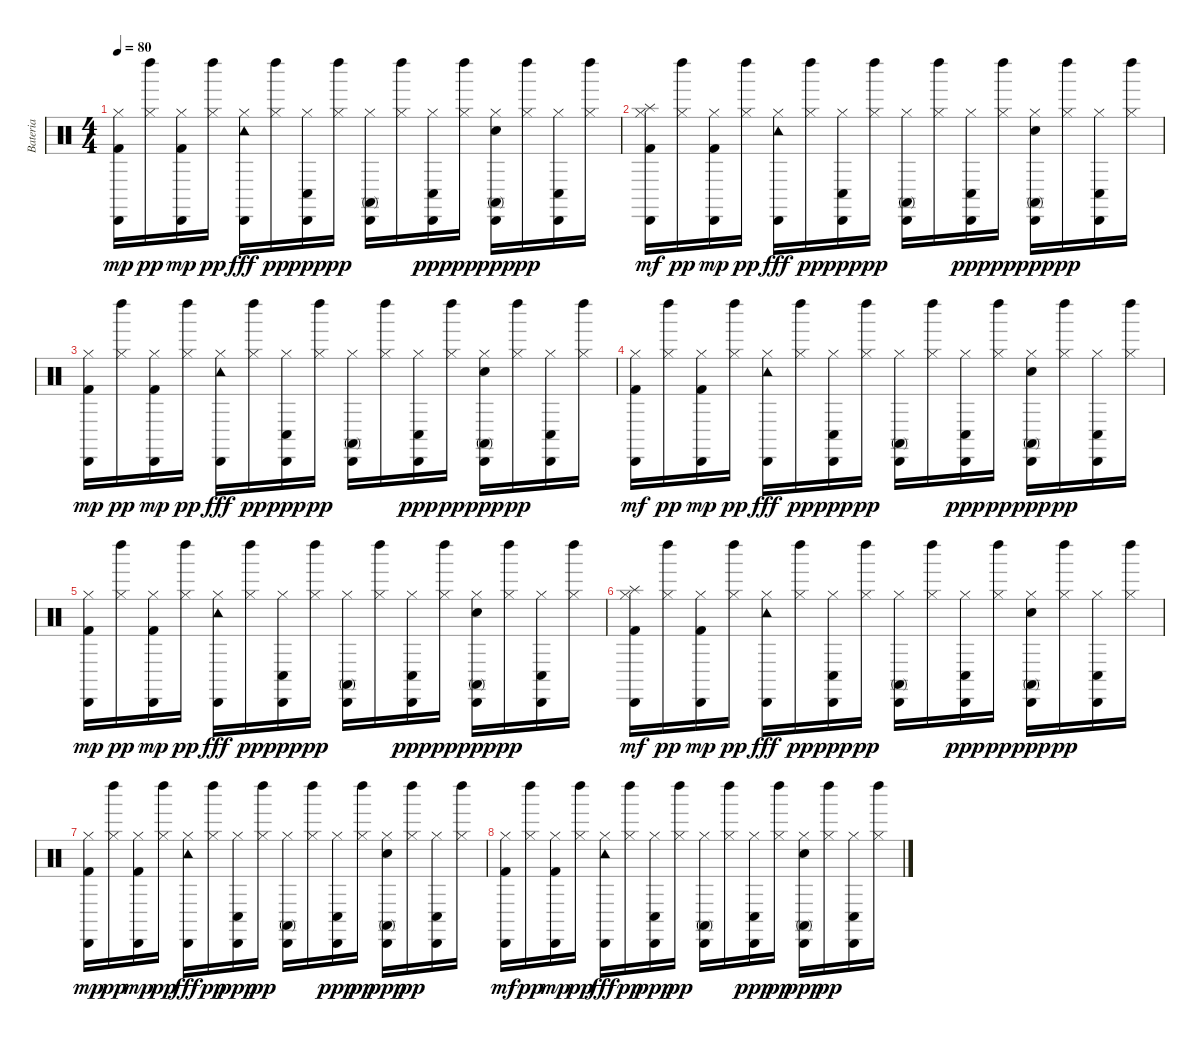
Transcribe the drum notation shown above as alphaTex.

\track ("Bateria" "Bateria") {instrument percussion}
\staff {score}
\articulation defaults
\ts (4 4)
\tempo 80
\clef neutral
\ks c
("Hi-Hat (closed)" "Cabasa (hit)" "Kick (hit) 2").16{dy mp} ("Hi-Hat (closed)" "Left Maraca (hit)").16{dy pp} ("Hi-Hat (closed)" "Cabasa (hit)" "Kick (hit) 2").16{dy mp} ("Hi-Hat (closed)" "Left Maraca (hit)").16{dy pp} ("Hi-Hat (closed)" "Cabasa (hit)" "Tambourine (hit)").16{dy fff} ("Hi-Hat (closed)" "Left Maraca (hit)").16{dy pp} ("Hi-Hat (closed)" "Conga low (hit)" "Cabasa (hit)").16{dy ppp} ("Hi-Hat (closed)" "Left Maraca (hit)").16{dy pp} ("Hi-Hat (closed)" "Conga high (mute)" "Cabasa (hit)").16 ("Hi-Hat (closed)" "Left Maraca (hit)").16 ("Hi-Hat (closed)" "Conga low (hit)" "Cabasa (hit)").16{dy ppp} ("Hi-Hat (closed)" "Left Maraca (hit)").16{dy pp} ("Electric Snare (hit)" "Hi-Hat (closed)" "Conga high (mute)" "Cabasa (hit)").16{dy ppp} ("Hi-Hat (closed)" "Left Maraca (hit)").16{dy pp} ("Hi-Hat (closed)" "Conga low (hit)" "Cabasa (hit)").16 ("Hi-Hat (closed)" "Left Maraca (hit)").16 |
("Hi-Hat (closed)" "Splash (hit)" "Cabasa (hit)" "Kick (hit) 2").16{dy mf} ("Hi-Hat (closed)" "Left Maraca (hit)").16{dy pp} ("Hi-Hat (closed)" "Cabasa (hit)" "Kick (hit) 2").16{dy mp} ("Hi-Hat (closed)" "Left Maraca (hit)").16{dy pp} ("Hi-Hat (closed)" "Cabasa (hit)" "Tambourine (hit)").16{dy fff} ("Hi-Hat (closed)" "Left Maraca (hit)").16{dy pp} ("Hi-Hat (closed)" "Conga low (hit)" "Cabasa (hit)").16{dy ppp} ("Hi-Hat (closed)" "Left Maraca (hit)").16{dy pp} ("Hi-Hat (closed)" "Conga high (mute)" "Cabasa (hit)").16 ("Hi-Hat (closed)" "Left Maraca (hit)").16 ("Hi-Hat (closed)" "Conga low (hit)" "Cabasa (hit)").16{dy ppp} ("Hi-Hat (closed)" "Left Maraca (hit)").16{dy pp} ("Electric Snare (hit)" "Hi-Hat (closed)" "Conga high (mute)" "Cabasa (hit)").16{dy ppp} ("Hi-Hat (closed)" "Left Maraca (hit)").16{dy pp} ("Hi-Hat (closed)" "Conga low (hit)" "Cabasa (hit)").16 ("Hi-Hat (closed)" "Left Maraca (hit)").16 |
("Hi-Hat (closed)" "Cabasa (hit)" "Kick (hit) 2").16{dy mp} ("Hi-Hat (closed)" "Left Maraca (hit)").16{dy pp} ("Hi-Hat (closed)" "Cabasa (hit)" "Kick (hit) 2").16{dy mp} ("Hi-Hat (closed)" "Left Maraca (hit)").16{dy pp} ("Hi-Hat (closed)" "Cabasa (hit)" "Tambourine (hit)").16{dy fff} ("Hi-Hat (closed)" "Left Maraca (hit)").16{dy pp} ("Hi-Hat (closed)" "Conga low (hit)" "Cabasa (hit)").16{dy ppp} ("Hi-Hat (closed)" "Left Maraca (hit)").16{dy pp} ("Hi-Hat (closed)" "Conga high (mute)" "Cabasa (hit)").16 ("Hi-Hat (closed)" "Left Maraca (hit)").16 ("Hi-Hat (closed)" "Conga low (hit)" "Cabasa (hit)").16{dy ppp} ("Hi-Hat (closed)" "Left Maraca (hit)").16{dy pp} ("Electric Snare (hit)" "Hi-Hat (closed)" "Conga high (mute)" "Cabasa (hit)").16{dy ppp} ("Hi-Hat (closed)" "Left Maraca (hit)").16{dy pp} ("Hi-Hat (closed)" "Conga low (hit)" "Cabasa (hit)").16 ("Hi-Hat (closed)" "Left Maraca (hit)").16 |
("Hi-Hat (closed)" "Cabasa (hit)" "Kick (hit) 2").16{dy mf} ("Hi-Hat (closed)" "Left Maraca (hit)").16{dy pp} ("Hi-Hat (closed)" "Cabasa (hit)" "Kick (hit) 2").16{dy mp} ("Hi-Hat (closed)" "Left Maraca (hit)").16{dy pp} ("Hi-Hat (closed)" "Cabasa (hit)" "Tambourine (hit)").16{dy fff} ("Hi-Hat (closed)" "Left Maraca (hit)").16{dy pp} ("Hi-Hat (closed)" "Conga low (hit)" "Cabasa (hit)").16{dy ppp} ("Hi-Hat (closed)" "Left Maraca (hit)").16{dy pp} ("Hi-Hat (closed)" "Conga high (mute)" "Cabasa (hit)").16 ("Hi-Hat (closed)" "Left Maraca (hit)").16 ("Hi-Hat (closed)" "Conga low (hit)" "Cabasa (hit)").16{dy ppp} ("Hi-Hat (closed)" "Left Maraca (hit)").16{dy pp} ("Electric Snare (hit)" "Hi-Hat (closed)" "Conga high (mute)" "Cabasa (hit)").16{dy ppp} ("Hi-Hat (closed)" "Left Maraca (hit)").16{dy pp} ("Hi-Hat (closed)" "Conga low (hit)" "Cabasa (hit)").16 ("Hi-Hat (closed)" "Left Maraca (hit)").16 |
("Hi-Hat (closed)" "Cabasa (hit)" "Kick (hit) 2").16{dy mp} ("Hi-Hat (closed)" "Left Maraca (hit)").16{dy pp} ("Hi-Hat (closed)" "Cabasa (hit)" "Kick (hit) 2").16{dy mp} ("Hi-Hat (closed)" "Left Maraca (hit)").16{dy pp} ("Hi-Hat (closed)" "Cabasa (hit)" "Tambourine (hit)").16{dy fff} ("Hi-Hat (closed)" "Left Maraca (hit)").16{dy pp} ("Hi-Hat (closed)" "Conga low (hit)" "Cabasa (hit)").16{dy ppp} ("Hi-Hat (closed)" "Left Maraca (hit)").16{dy pp} ("Hi-Hat (closed)" "Conga high (mute)" "Cabasa (hit)").16 ("Hi-Hat (closed)" "Left Maraca (hit)").16 ("Hi-Hat (closed)" "Conga low (hit)" "Cabasa (hit)").16{dy ppp} ("Hi-Hat (closed)" "Left Maraca (hit)").16{dy pp} ("Electric Snare (hit)" "Hi-Hat (closed)" "Conga high (mute)" "Cabasa (hit)").16{dy ppp} ("Hi-Hat (closed)" "Left Maraca (hit)").16{dy pp} ("Hi-Hat (closed)" "Conga low (hit)" "Cabasa (hit)").16 ("Hi-Hat (closed)" "Left Maraca (hit)").16 |
("Hi-Hat (closed)" "Splash (hit)" "Cabasa (hit)" "Kick (hit) 2").16{dy mf} ("Hi-Hat (closed)" "Left Maraca (hit)").16{dy pp} ("Hi-Hat (closed)" "Cabasa (hit)" "Kick (hit) 2").16{dy mp} ("Hi-Hat (closed)" "Left Maraca (hit)").16{dy pp} ("Hi-Hat (closed)" "Cabasa (hit)" "Tambourine (hit)").16{dy fff} ("Hi-Hat (closed)" "Left Maraca (hit)").16{dy pp} ("Hi-Hat (closed)" "Conga low (hit)" "Cabasa (hit)").16{dy ppp} ("Hi-Hat (closed)" "Left Maraca (hit)").16{dy pp} ("Hi-Hat (closed)" "Conga high (mute)" "Cabasa (hit)").16 ("Hi-Hat (closed)" "Left Maraca (hit)").16 ("Hi-Hat (closed)" "Conga low (hit)" "Cabasa (hit)").16{dy ppp} ("Hi-Hat (closed)" "Left Maraca (hit)").16{dy pp} ("Electric Snare (hit)" "Hi-Hat (closed)" "Conga high (mute)" "Cabasa (hit)").16{dy ppp} ("Hi-Hat (closed)" "Left Maraca (hit)").16{dy pp} ("Hi-Hat (closed)" "Conga low (hit)" "Cabasa (hit)").16 ("Hi-Hat (closed)" "Left Maraca (hit)").16 |
("Hi-Hat (closed)" "Cabasa (hit)" "Kick (hit) 2").16{dy mp} ("Hi-Hat (closed)" "Left Maraca (hit)").16{dy pp} ("Hi-Hat (closed)" "Cabasa (hit)" "Kick (hit) 2").16{dy mp} ("Hi-Hat (closed)" "Left Maraca (hit)").16{dy pp} ("Hi-Hat (closed)" "Cabasa (hit)" "Tambourine (hit)").16{dy fff} ("Hi-Hat (closed)" "Left Maraca (hit)").16{dy pp} ("Hi-Hat (closed)" "Conga low (hit)" "Cabasa (hit)").16{dy ppp} ("Hi-Hat (closed)" "Left Maraca (hit)").16{dy pp} ("Hi-Hat (closed)" "Conga high (mute)" "Cabasa (hit)").16 ("Hi-Hat (closed)" "Left Maraca (hit)").16 ("Hi-Hat (closed)" "Conga low (hit)" "Cabasa (hit)").16{dy ppp} ("Hi-Hat (closed)" "Left Maraca (hit)").16{dy pp} ("Electric Snare (hit)" "Hi-Hat (closed)" "Conga high (mute)" "Cabasa (hit)").16{dy ppp} ("Hi-Hat (closed)" "Left Maraca (hit)").16{dy pp} ("Hi-Hat (closed)" "Conga low (hit)" "Cabasa (hit)").16 ("Hi-Hat (closed)" "Left Maraca (hit)").16 |
("Hi-Hat (closed)" "Cabasa (hit)" "Kick (hit) 2").16{dy mf} ("Hi-Hat (closed)" "Left Maraca (hit)").16{dy pp} ("Hi-Hat (closed)" "Cabasa (hit)" "Kick (hit) 2").16{dy mp} ("Hi-Hat (closed)" "Left Maraca (hit)").16{dy pp} ("Hi-Hat (closed)" "Cabasa (hit)" "Tambourine (hit)").16{dy fff} ("Hi-Hat (closed)" "Left Maraca (hit)").16{dy pp} ("Hi-Hat (closed)" "Conga low (hit)" "Cabasa (hit)").16{dy ppp} ("Hi-Hat (closed)" "Left Maraca (hit)").16{dy pp} ("Hi-Hat (closed)" "Conga high (mute)" "Cabasa (hit)").16 ("Hi-Hat (closed)" "Left Maraca (hit)").16 ("Hi-Hat (closed)" "Conga low (hit)" "Cabasa (hit)").16{dy ppp} ("Hi-Hat (closed)" "Left Maraca (hit)").16{dy pp} ("Electric Snare (hit)" "Hi-Hat (closed)" "Conga high (mute)" "Cabasa (hit)").16{dy ppp} ("Hi-Hat (closed)" "Left Maraca (hit)").16{dy pp} ("Hi-Hat (closed)" "Conga low (hit)" "Cabasa (hit)").16 ("Hi-Hat (closed)" "Left Maraca (hit)").16
